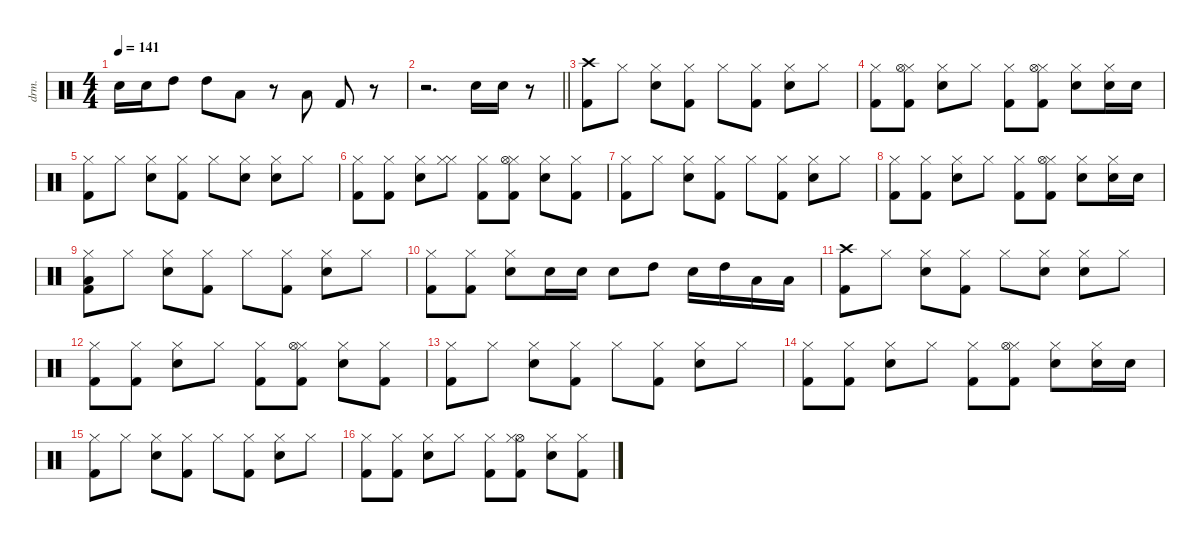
\defaultSystemsLayout 4
\hideDynamics
\bracketExtendMode nobrackets
\otherSystemsTrackNameOrientation horizontal
\track ("Drum" "drm.") {instrument percussion}
\staff {score}
\articulation defaults
\ts (4 4)
\tempo 141
\clef neutral
\ks c "Snare (hit) 2".16{dy fff beam Down} "Snare (hit) 2".16{beam Down} "High Tom (hit)".8{beam Down} "High Tom (hit)".8{beam Down} "Low Tom (hit)".8{beam Down}
r.8{beam Down} "Low Floor Tom (hit)".8{beam Up} "Kick (hit) 2".8{beam Up} r.8{beam Up} |
\barLineRight lightlight
r.2{d beam Down} "Snare (hit) 2".16{beam Down} "Snare (hit) 2".16{beam Down} r.8{beam Down} |
("Crash high (hit)" "Kick (hit) 2").8{beam Down} "Hi-Hat (closed)".8{dy f beam Down} ("Hi-Hat (closed)" "Snare (hit) 2").8{dy fff beam Down} ("Hi-Hat (closed)" "Kick (hit) 2").8{beam Down} "Hi-Hat (closed)".8{beam Down} ("Kick (hit) 2" "Hi-Hat (closed)").8{beam Down} ("Snare (hit) 2" "Hi-Hat (closed)").8{beam Down} "Hi-Hat (closed)".8{dy f beam Down} |
("Hi-Hat (closed)" "Kick (hit) 2").8{dy fff beam Down} ("Hi-Hat (closed)" "Kick (hit) 2" "Hi-Hat (open)").8{beam Down} ("Hi-Hat (closed)" "Snare (hit) 2").8{beam Down} "Hi-Hat (closed)".8{dy f beam Down} ("Hi-Hat (closed)" "Kick (hit) 2").8{dy fff beam Down} ("Hi-Hat (closed)" "Kick (hit) 2" "Hi-Hat (open)").8{beam Down} ("Hi-Hat (closed)" "Snare (hit) 2").8{beam Down} ("Hi-Hat (closed)" "Snare (hit) 2").16{dy f beam Down} "Snare (hit) 2".16{beam Down} |
("Hi-Hat (closed)" "Kick (hit) 2").8{dy fff beam Down} "Hi-Hat (closed)".8{dy f beam Down} ("Hi-Hat (closed)" "Snare (hit) 2").8{dy fff beam Down} ("Hi-Hat (closed)" "Kick (hit) 2").8{beam Down} "Hi-Hat (closed)".8{beam Down} ("Hi-Hat (closed)" "Snare (hit) 2").8{beam Down} ("Hi-Hat (closed)" "Snare (hit) 2").8{beam Down} "Hi-Hat (closed)".8{dy f beam Down} |
("Kick (hit) 2" "Hi-Hat (closed)").8{dy fff beam Down} ("Kick (hit) 2" "Hi-Hat (closed)").8{beam Down} ("Snare (hit) 2" "Hi-Hat (closed)").8{beam Down} ("Hi-Hat (closed)" "Hi-Hat (closed)").8{dy f beam Down} ("Kick (hit) 2" "Hi-Hat (closed)").8{dy fff beam Down} ("Kick (hit) 2" "Hi-Hat (closed)" "Hi-Hat (open)").8{beam Down} ("Snare (hit) 2" "Hi-Hat (closed)").8{beam Down} ("Kick (hit) 2" "Hi-Hat (closed)").8{beam Down} |
("Kick (hit) 2" "Hi-Hat (closed)").8{beam Down} "Hi-Hat (closed)".8{dy f beam Down} ("Snare (hit) 2" "Hi-Hat (closed)").8{dy fff beam Down} ("Kick (hit) 2" "Hi-Hat (closed)").8{beam Down} "Hi-Hat (closed)".8{beam Down} ("Kick (hit) 2" "Hi-Hat (closed)").8{beam Down} ("Snare (hit) 2" "Hi-Hat (closed)").8{beam Down} "Hi-Hat (closed)".8{dy f beam Down} |
("Kick (hit) 2" "Hi-Hat (closed)").8{dy fff beam Down} ("Kick (hit) 2" "Hi-Hat (closed)").8{beam Down} ("Snare (hit) 2" "Hi-Hat (closed)").8{beam Down} "Hi-Hat (closed)".8{dy f beam Down} ("Kick (hit) 2" "Hi-Hat (closed)").8{dy fff beam Down} ("Kick (hit) 2" "Hi-Hat (closed)" "Hi-Hat (open)").8{beam Down} ("Snare (hit) 2" "Hi-Hat (closed)").8{beam Down} ("Snare (hit) 2" "Hi-Hat (closed)").16{dy f beam Down} "Snare (hit) 2".16{dy fff beam Down} |
("Hi-Hat (closed)" "Kick (hit) 2" "Low Floor Tom (hit)").8{dy mp beam Down} "Hi-Hat (closed)".8{dy f beam Down} ("Hi-Hat (closed)" "Snare (hit) 2").8{dy fff beam Down} ("Hi-Hat (closed)" "Kick (hit) 2").8{dy f beam Down} "Hi-Hat (closed)".8{dy fff beam Down} ("Hi-Hat (closed)" "Kick (hit) 2").8{beam Down} ("Hi-Hat (closed)" "Snare (hit) 2").8{beam Down} "Hi-Hat (closed)".8{dy f beam Down} |
("Kick (hit) 2" "Hi-Hat (closed)").8{dy fff beam Down} ("Kick (hit) 2" "Hi-Hat (closed)").8{beam Down} ("Snare (hit) 2" "Hi-Hat (closed)").8{beam Down} "Snare (hit) 2".16{beam Down} "Snare (hit) 2".16{beam Down} "Snare (hit) 2".8{beam Down} "High Tom (hit)".8{beam Down} "Snare (hit) 2".16{beam Down} "High Tom (hit)".16{beam Down} "Low Tom (hit)".16{beam Down} "Low Floor Tom (hit)".16{beam Down} |
("Crash high (hit)" "Kick (hit) 2").8{beam Down} "Hi-Hat (closed)".8{dy f beam Down} ("Hi-Hat (closed)" "Snare (hit) 2").8{dy fff beam Down} ("Hi-Hat (closed)" "Kick (hit) 2").8{beam Down} "Hi-Hat (closed)".8{beam Down} ("Hi-Hat (closed)" "Snare (hit) 2").8{beam Down} ("Hi-Hat (closed)" "Snare (hit) 2").8{beam Down} "Hi-Hat (closed)".8{dy f beam Down} |
("Hi-Hat (closed)" "Kick (hit) 2").8{dy fff beam Down} ("Hi-Hat (closed)" "Kick (hit) 2").8{beam Down} ("Hi-Hat (closed)" "Snare (hit) 2").8{beam Down} "Hi-Hat (closed)".8{dy f beam Down} ("Hi-Hat (closed)" "Kick (hit) 2").8{dy fff beam Down} ("Hi-Hat (closed)" "Kick (hit) 2" "Hi-Hat (open)").8{beam Down} ("Hi-Hat (closed)" "Snare (hit) 2").8{beam Down} ("Hi-Hat (closed)" "Kick (hit) 2").8{dy f beam Down} |
("Hi-Hat (closed)" "Kick (hit) 2").8{dy fff beam Down} "Hi-Hat (closed)".8{dy f beam Down} ("Hi-Hat (closed)" "Snare (hit) 2").8{dy fff beam Down} ("Hi-Hat (closed)" "Kick (hit) 2").8{dy f beam Down} "Hi-Hat (closed)".8{dy fff beam Down} ("Hi-Hat (closed)" "Kick (hit) 2").8{beam Down} ("Hi-Hat (closed)" "Snare (hit) 2").8{beam Down} "Hi-Hat (closed)".8{dy f beam Down} |
("Kick (hit) 2" "Hi-Hat (closed)").8{dy fff beam Down} ("Kick (hit) 2" "Hi-Hat (closed)").8{beam Down} ("Snare (hit) 2" "Hi-Hat (closed)").8{beam Down} "Hi-Hat (closed)".8{dy f beam Down} ("Kick (hit) 2" "Hi-Hat (closed)").8{dy fff beam Down} ("Kick (hit) 2" "Hi-Hat (closed)" "Hi-Hat (open)").8{beam Down} ("Snare (hit) 2" "Hi-Hat (closed)").8{beam Down} ("Snare (hit) 2" "Hi-Hat (closed)").16{beam Down} "Snare (hit) 2".16{beam Down} |
("Hi-Hat (closed)" "Kick (hit) 2").8{beam Down} "Hi-Hat (closed)".8{dy f beam Down} ("Hi-Hat (closed)" "Snare (hit) 2").8{dy fff beam Down} ("Hi-Hat (closed)" "Kick (hit) 2").8{beam Down} "Hi-Hat (closed)".8{beam Down} ("Hi-Hat (closed)" "Kick (hit) 2").8{dy f beam Down} ("Hi-Hat (closed)" "Snare (hit) 2").8{dy fff beam Down} "Hi-Hat (closed)".8{dy f beam Down} |
("Kick (hit) 2" "Hi-Hat (closed)").8{dy fff beam Down} ("Kick (hit) 2" "Hi-Hat (closed)").8{beam Down} ("Snare (hit) 2" "Hi-Hat (closed)").8{beam Down} "Hi-Hat (closed)".8{dy f beam Down} ("Hi-Hat (closed)" "Kick (hit) 2").8{dy fff beam Down} ("Hi-Hat (open)" "Hi-Hat (closed)" "Kick (hit) 2").8{dy f beam Down} ("Snare (hit) 2" "Hi-Hat (closed)").8{dy fff beam Down} ("Kick (hit) 2" "Hi-Hat (closed)").8{beam Down}
